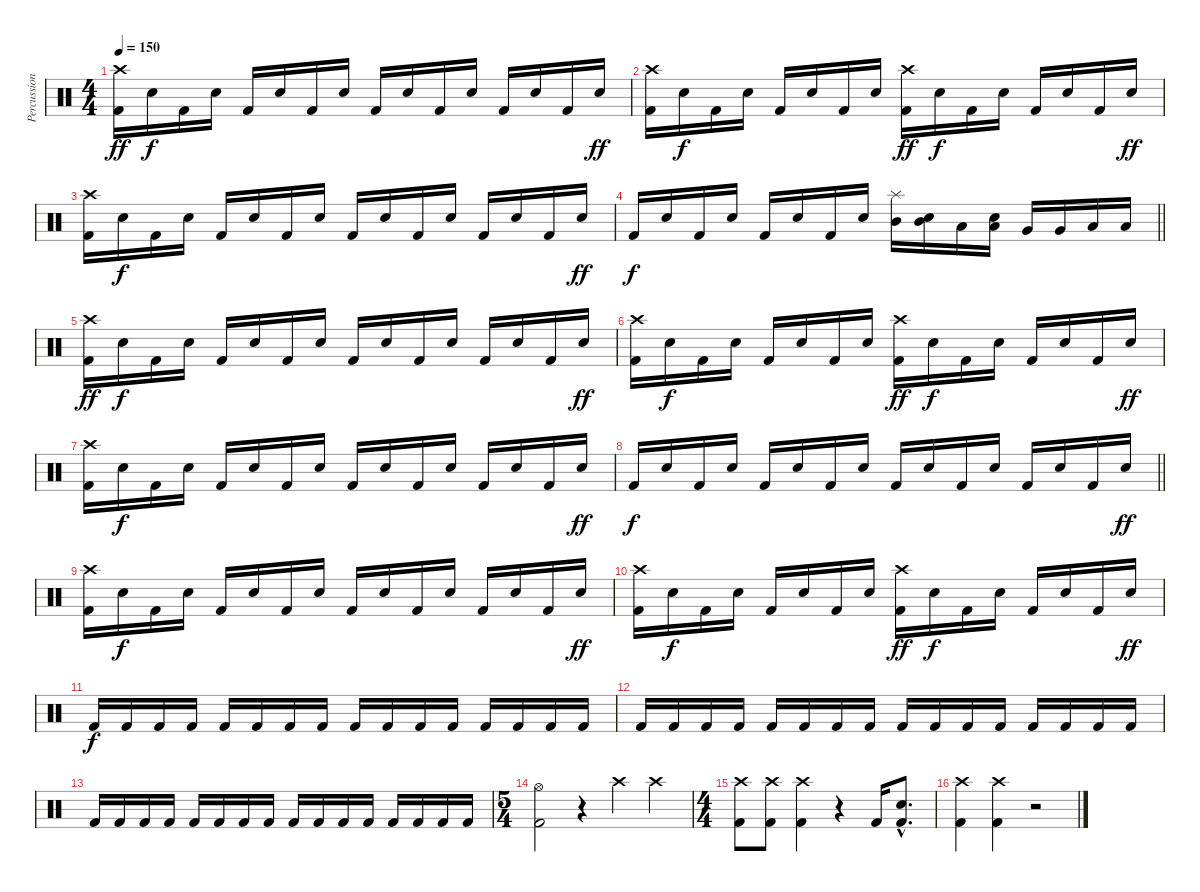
\track ("Percussion" "Percussion") {instrument percussion}
\staff {score}
\articulation defaults
\ts (4 4)
\tempo 150
\clef neutral
\ks c
("Crash high (hit)" "Kick (hit) 2").16{dy ff} "Electric Snare (hit)".16{dy f} "Kick (hit) 2".16 "Electric Snare (hit)".16 "Kick (hit) 2".16 "Electric Snare (hit)".16 "Kick (hit) 2".16 "Electric Snare (hit)".16 "Kick (hit) 2".16 "Electric Snare (hit)".16 "Kick (hit) 2".16 "Electric Snare (hit)".16 "Kick (hit) 2".16 "Electric Snare (hit)".16 "Kick (hit) 2".16 "Electric Snare (hit)".16{dy ff} |
("Crash high (hit)" "Kick (hit) 2").16 "Electric Snare (hit)".16{dy f} "Kick (hit) 2".16 "Electric Snare (hit)".16 "Kick (hit) 2".16 "Electric Snare (hit)".16 "Kick (hit) 2".16 "Electric Snare (hit)".16 ("Crash high (hit)" "Kick (hit) 2").16{dy ff} "Electric Snare (hit)".16{dy f} "Kick (hit) 2".16 "Electric Snare (hit)".16 "Kick (hit) 2".16 "Electric Snare (hit)".16 "Kick (hit) 2".16 "Electric Snare (hit)".16{dy ff} |
("Crash high (hit)" "Kick (hit) 2").16 "Electric Snare (hit)".16{dy f} "Kick (hit) 2".16 "Electric Snare (hit)".16 "Kick (hit) 2".16 "Electric Snare (hit)".16 "Kick (hit) 2".16 "Electric Snare (hit)".16 "Kick (hit) 2".16 "Electric Snare (hit)".16 "Kick (hit) 2".16 "Electric Snare (hit)".16 "Kick (hit) 2".16 "Electric Snare (hit)".16 "Kick (hit) 2".16 "Electric Snare (hit)".16{dy ff} |
\barLineRight lightlight "Kick (hit) 2".16{dy f} "Electric Snare (hit)".16 "Kick (hit) 2".16 "Electric Snare (hit)".16 "Kick (hit) 2".16 "Electric Snare (hit)".16 "Kick (hit) 2".16 "Electric Snare (hit)".16
("Splash (hit)" "Mid Tom (hit)").16 ("Electric Snare (hit)" "Mid Tom (hit)").16 "Low Tom (hit)".16 ("Electric Snare (hit)" "Low Tom (hit)").16 "Very Low Tom (hit)".16 "Very Low Tom (hit)".16 "Low Floor Tom (hit)".16 "Low Floor Tom (hit)".16 |
("Crash high (hit)" "Kick (hit) 2").16{dy ff} "Electric Snare (hit)".16{dy f} "Kick (hit) 2".16 "Electric Snare (hit)".16 "Kick (hit) 2".16 "Electric Snare (hit)".16 "Kick (hit) 2".16 "Electric Snare (hit)".16 "Kick (hit) 2".16 "Electric Snare (hit)".16 "Kick (hit) 2".16 "Electric Snare (hit)".16 "Kick (hit) 2".16 "Electric Snare (hit)".16 "Kick (hit) 2".16 "Electric Snare (hit)".16{dy ff} |
("Crash high (hit)" "Kick (hit) 2").16 "Electric Snare (hit)".16{dy f} "Kick (hit) 2".16 "Electric Snare (hit)".16 "Kick (hit) 2".16 "Electric Snare (hit)".16 "Kick (hit) 2".16 "Electric Snare (hit)".16 ("Crash high (hit)" "Kick (hit) 2").16{dy ff} "Electric Snare (hit)".16{dy f} "Kick (hit) 2".16 "Electric Snare (hit)".16 "Kick (hit) 2".16 "Electric Snare (hit)".16 "Kick (hit) 2".16 "Electric Snare (hit)".16{dy ff} |
("Crash high (hit)" "Kick (hit) 2").16 "Electric Snare (hit)".16{dy f} "Kick (hit) 2".16 "Electric Snare (hit)".16 "Kick (hit) 2".16 "Electric Snare (hit)".16 "Kick (hit) 2".16 "Electric Snare (hit)".16 "Kick (hit) 2".16 "Electric Snare (hit)".16 "Kick (hit) 2".16 "Electric Snare (hit)".16 "Kick (hit) 2".16 "Electric Snare (hit)".16 "Kick (hit) 2".16 "Electric Snare (hit)".16{dy ff} |
\barLineRight lightlight "Kick (hit) 2".16{dy f} "Electric Snare (hit)".16 "Kick (hit) 2".16 "Electric Snare (hit)".16 "Kick (hit) 2".16 "Electric Snare (hit)".16 "Kick (hit) 2".16 "Electric Snare (hit)".16 "Kick (hit) 2".16 "Electric Snare (hit)".16 "Kick (hit) 2".16 "Electric Snare (hit)".16 "Kick (hit) 2".16 "Electric Snare (hit)".16 "Kick (hit) 2".16 "Electric Snare (hit)".16{dy ff}
|
("Crash high (hit)" "Kick (hit) 2").16 "Electric Snare (hit)".16{dy f} "Kick (hit) 2".16 "Electric Snare (hit)".16 "Kick (hit) 2".16 "Electric Snare (hit)".16 "Kick (hit) 2".16 "Electric Snare (hit)".16 "Kick (hit) 2".16 "Electric Snare (hit)".16 "Kick (hit) 2".16 "Electric Snare (hit)".16 "Kick (hit) 2".16 "Electric Snare (hit)".16 "Kick (hit) 2".16 "Electric Snare (hit)".16{dy ff} |
("Crash high (hit)" "Kick (hit) 2").16 "Electric Snare (hit)".16{dy f} "Kick (hit) 2".16 "Electric Snare (hit)".16 "Kick (hit) 2".16 "Electric Snare (hit)".16 "Kick (hit) 2".16 "Electric Snare (hit)".16 ("Crash high (hit)" "Kick (hit) 2").16{dy ff} "Electric Snare (hit)".16{dy f} "Kick (hit) 2".16 "Electric Snare (hit)".16 "Kick (hit) 2".16 "Electric Snare (hit)".16 "Kick (hit) 2".16 "Electric Snare (hit)".16{dy ff} |
"Kick (hit) 2".16{dy f} "Kick (hit) 2".16 "Kick (hit) 2".16 "Kick (hit) 2".16 "Kick (hit) 2".16 "Kick (hit) 2".16 "Kick (hit) 2".16 "Kick (hit) 2".16 "Kick (hit) 2".16 "Kick (hit) 2".16 "Kick (hit) 2".16 "Kick (hit) 2".16 "Kick (hit) 2".16 "Kick (hit) 2".16 "Kick (hit) 2".16 "Kick (hit) 2".16 |
"Kick (hit) 2".16 "Kick (hit) 2".16 "Kick (hit) 2".16 "Kick (hit) 2".16 "Kick (hit) 2".16 "Kick (hit) 2".16 "Kick (hit) 2".16 "Kick (hit) 2".16 "Kick (hit) 2".16 "Kick (hit) 2".16 "Kick (hit) 2".16 "Kick (hit) 2".16 "Kick (hit) 2".16 "Kick (hit) 2".16 "Kick (hit) 2".16 "Kick (hit) 2".16 |
"Kick (hit) 2".16 "Kick (hit) 2".16 "Kick (hit) 2".16 "Kick (hit) 2".16 "Kick (hit) 2".16 "Kick (hit) 2".16 "Kick (hit) 2".16 "Kick (hit) 2".16 "Kick (hit) 2".16 "Kick (hit) 2".16 "Kick (hit) 2".16 "Kick (hit) 2".16 "Kick (hit) 2".16 "Kick (hit) 2".16 "Kick (hit) 2".16 "Kick (hit) 2".16 |
\ts (5 4)
("Hi-Hat (open)" "Kick (hit) 2").2 r.4 "Crash high (hit)".4 "Crash high (hit)".4 |
\ts (4 4)
("Crash high (hit)" "Kick (hit) 2").8 ("Crash high (hit)" "Kick (hit) 2").8 ("Crash high (hit)" "Kick (hit) 2").4 r.4 "Kick (hit) 2".16 ("Electric Snare (hit)"{hac} "Kick (hit) 2"{hac}).8{d} |
("Crash high (hit)" "Kick (hit) 2").4 ("Crash high (hit)" "Kick (hit) 2").4 r.2
